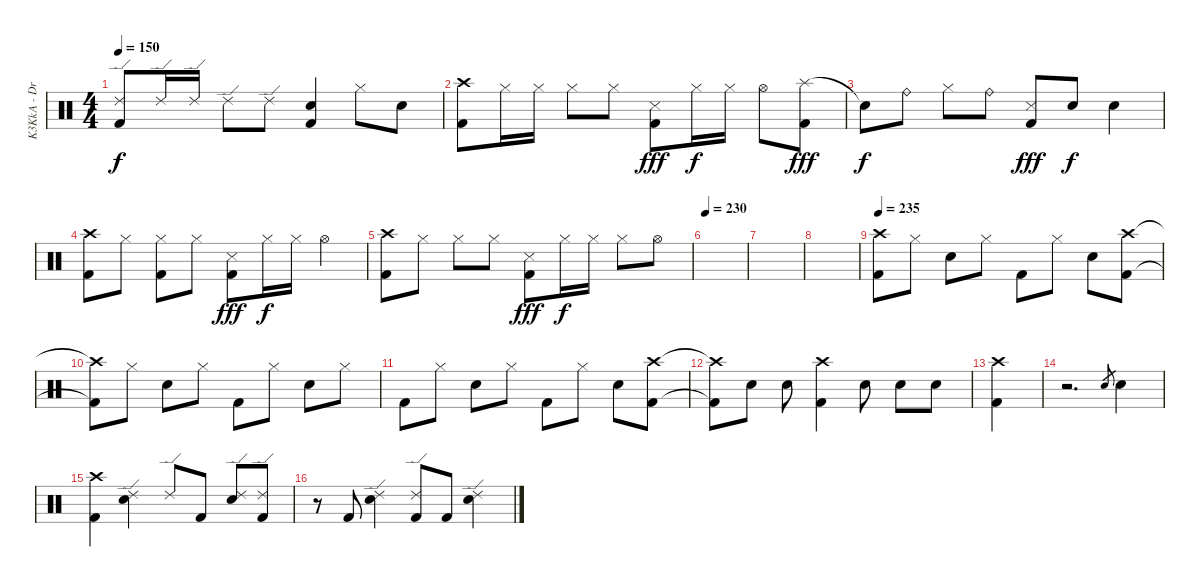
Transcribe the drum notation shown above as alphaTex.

\track ("K3KkA - Drums" "K3KkA - Dr") {instrument percussion}
\staff {score}
\articulation defaults
\ts (4 4)
\tempo 150
\clef neutral
\ks c
("Ride (edge) 2" "Kick (hit) 2").8{dy f} "Ride (edge) 2".16 "Ride (edge) 2".16 "Ride (edge) 2".8 "Ride (edge) 2".8 ("Kick (hit) 2" "Electric Snare (hit)").4 "Hi-Hat (closed)".8 "Electric Snare (hit)".8 |
("Crash high (hit)" "Kick (hit) 2").8 "Hi-Hat (closed)".16 "Hi-Hat (closed)".16 "Hi-Hat (closed)".8 "Hi-Hat (closed)".8 ("Metronome (hit)" "Kick (hit) 2").8{dy fff} "Hi-Hat (closed)".16{dy f} "Hi-Hat (closed)".16 "Hi-Hat (open)".8 ("Splash (hit)" "Kick (hit) 2").8{dy fff} |
"Snare (hit)"{t}.8{dy f} "Ride (bell)".8 "Hi-Hat (closed)".8 "Ride (bell)".8 ("Kick (hit) 2" "Metronome (hit)").8{dy fff} "Snare (hit) 2".8{dy f} "Snare (hit) 2".4 |
("Crash high (hit)" "Kick (hit) 2").8 "Hi-Hat (closed)".8 ("Hi-Hat (closed)" "Kick (hit) 2").8 "Hi-Hat (closed)".8 ("Metronome (hit)" "Kick (hit) 2").8{dy fff} "Hi-Hat (closed)".16{dy f} "Hi-Hat (closed)".16 "Hi-Hat (open)".4 |
("Crash high (hit)" "Kick (hit) 2").8 "Hi-Hat (closed)".8 "Hi-Hat (closed)".8 "Hi-Hat (closed)".8 ("Metronome (hit)" "Kick (hit) 2").8{dy fff} "Hi-Hat (closed)".16{dy f} "Hi-Hat (closed)".16 "Hi-Hat (closed)".8 "Hi-Hat (open)".8 |
\tempo 230
|
|
|
\tempo 235
("Crash high (hit)" "Kick (hit) 2").8 "Hi-Hat (closed)".8 "Snare (hit) 2".8 "Hi-Hat (closed)".8 "Kick (hit) 2".8 "Hi-Hat (closed)".8 "Snare (hit) 2".8 ("Crash high (hit)" "Kick (hit) 2").8 |
("Crash high (hit)"{t} "Kick (hit) 2"{t}).8 "Hi-Hat (closed)".8 "Snare (hit) 2".8 "Hi-Hat (closed)".8 "Kick (hit) 2".8 "Hi-Hat (closed)".8 "Snare (hit) 2".8 "Hi-Hat (closed)".8 |
"Kick (hit) 2".8 "Hi-Hat (closed)".8 "Snare (hit) 2".8 "Hi-Hat (closed)".8 "Kick (hit) 2".8 "Hi-Hat (closed)".8 "Snare (hit) 2".8 ("Crash high (hit)" "Kick (hit) 2").8 |
("Crash high (hit)"{t} "Kick (hit) 2"{t}).8 "Snare (hit) 2".8 "Snare (hit) 2".8 ("Crash high (hit)" "Kick (hit) 2").4 "Snare (hit) 2".8 "Snare (hit) 2".8 "Snare (hit) 2".8 |
("Crash high (hit)" "Kick (hit) 2").4 |
r.2{d} "Snare (hit) 2".8{gr} "Snare (hit) 2".4 |
("Crash high (hit)" "Kick (hit) 2").4 ("Ride (edge) 2" "Snare (hit) 2").4 "Ride (edge) 2".8 "Kick (hit) 2".8 ("Ride (edge) 2" "Snare (hit) 2").8 ("Ride (edge) 2" "Kick (hit) 2").8 |
r.8 "Kick (hit) 2".8 ("Ride (edge) 2" "Snare (hit) 2").4 ("Ride (edge) 2" "Kick (hit) 2").8 "Kick (hit) 2".8 ("Ride (edge) 2" "Snare (hit) 2").4
